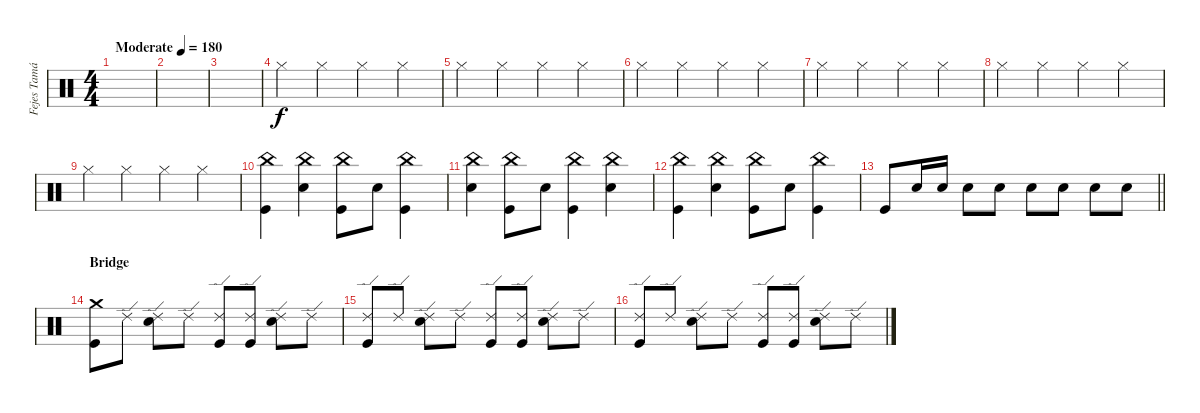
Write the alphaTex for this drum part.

\track ("Fejes Tamás - Dob" "Fejes Tamá") {instrument percussion}
\staff {score}
\articulation defaults
\ts (4 4)
\tempo (180 "Moderate")
\clef neutral
\ks c
|
|
|
"Hi-Hat (closed)".4 "Hi-Hat (closed)".4 "Hi-Hat (closed)".4 "Hi-Hat (closed)".4 |
"Hi-Hat (closed)".4 "Hi-Hat (closed)".4 "Hi-Hat (closed)".4 "Hi-Hat (closed)".4 |
"Hi-Hat (closed)".4 "Hi-Hat (closed)".4 "Hi-Hat (closed)".4 "Hi-Hat (closed)".4 |
"Hi-Hat (closed)".4 "Hi-Hat (closed)".4 "Hi-Hat (closed)".4 "Hi-Hat (closed)".4 |
"Hi-Hat (closed)".4 "Hi-Hat (closed)".4 "Hi-Hat (closed)".4 "Hi-Hat (closed)".4 |
"Hi-Hat (closed)".4 "Hi-Hat (closed)".4 "Hi-Hat (closed)".4 "Hi-Hat (closed)".4 |
("China (hit)" "Kick (hit)").4 ("China (hit)" "Electric Snare (hit)").4 ("China (hit)" "Kick (hit)").8 "Electric Snare (hit)".8 ("China (hit)" "Kick (hit)").4 |
("China (hit)" "Electric Snare (hit)").4 ("China (hit)" "Kick (hit)").8 "Electric Snare (hit)".8 ("China (hit)" "Kick (hit)").4 ("China (hit)" "Electric Snare (hit)").4 |
("China (hit)" "Kick (hit)").4 ("China (hit)" "Electric Snare (hit)").4 ("China (hit)" "Kick (hit)").8 "Electric Snare (hit)".8 ("China (hit)" "Kick (hit)").4 |
\barLineRight lightlight "Kick (hit)".8 "Electric Snare (hit)".16 "Electric Snare (hit)".16 "Electric Snare (hit)".8 "Electric Snare (hit)".8 "Electric Snare (hit)".8 "Electric Snare (hit)".8 "Electric Snare (hit)".8 "Electric Snare (hit)".8
|
\section ("" "Bridge")
("Crash medium (hit)" "Kick (hit)").8 "Ride (edge) 2".8 ("Ride (edge) 2" "Electric Snare (hit)").8 "Ride (edge) 2".8 ("Ride (edge) 2" "Kick (hit)").8 ("Ride (edge) 2" "Kick (hit)").8 ("Ride (edge) 2" "Electric Snare (hit)").8 "Ride (edge) 2".8 |
("Ride (edge) 2" "Kick (hit)").8 "Ride (edge) 2".8 ("Ride (edge) 2" "Electric Snare (hit)").8 "Ride (edge) 2".8 ("Ride (edge) 2" "Kick (hit)").8 ("Ride (edge) 2" "Kick (hit)").8 ("Ride (edge) 2" "Electric Snare (hit)").8 "Ride (edge) 2".8 |
("Ride (edge) 2" "Kick (hit)").8 "Ride (edge) 2".8 ("Ride (edge) 2" "Electric Snare (hit)").8 "Ride (edge) 2".8 ("Ride (edge) 2" "Kick (hit)").8 ("Ride (edge) 2" "Kick (hit)").8 ("Ride (edge) 2" "Electric Snare (hit)").8 "Ride (edge) 2".8
